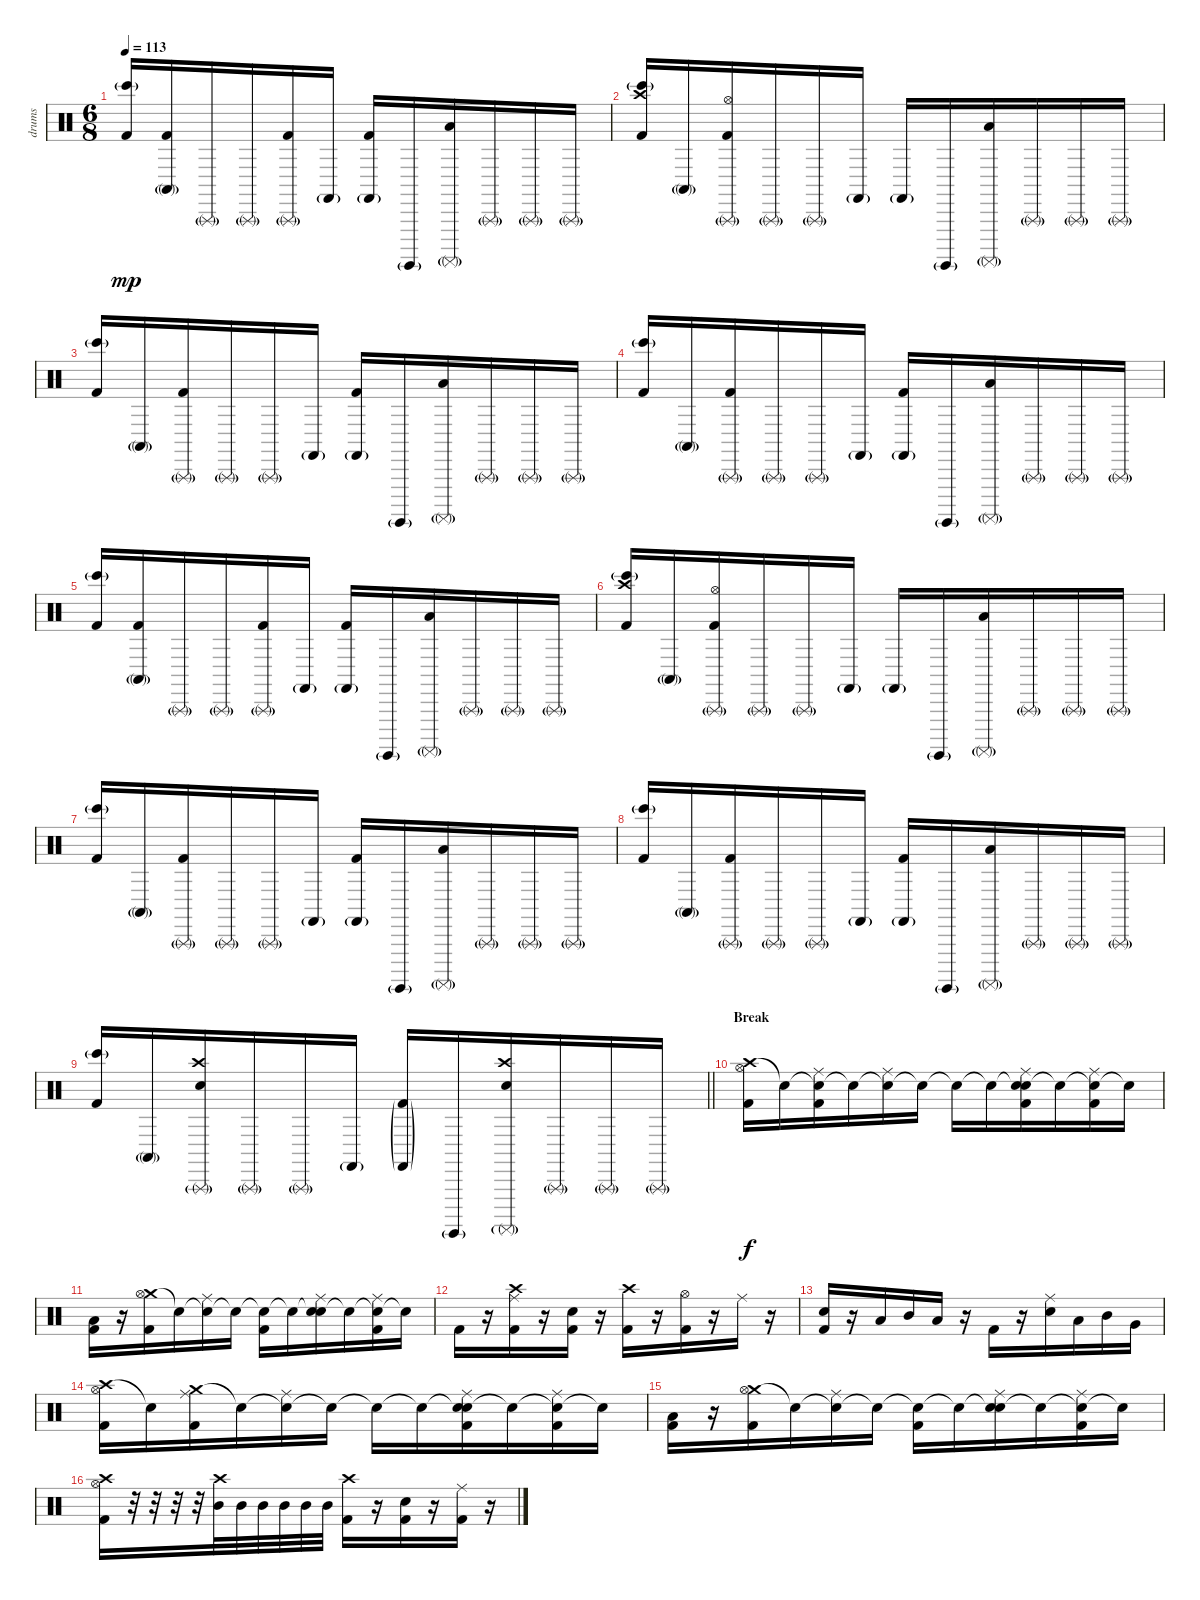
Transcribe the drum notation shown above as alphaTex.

\track ("drums" "drums") {instrument percussion}
\staff {score}
\articulation defaults
\ts (6 8)
\tempo 113
\clef neutral
\ks c
("Kick (hit) 2" "Bongo High (hit)"{g}).16{dy mp} ("Kick (hit) 2" "Conga high (mute)"{g}).16 "Triangle (rnute)"{g}.16 "Triangle (rnute)"{g}.16 ("Kick (hit) 2" "Triangle (rnute)"{g}).16 "Castanets (hit)"{g}.16 ("Kick (hit) 2" "Castanets (hit)"{g}).16 "Surdo (hit)"{g}.16 ("Low Tom (hit)" "Surdo (mute)"{g}).16 "Triangle (rnute)"{g}.16 "Triangle (rnute)"{g}.16 "Triangle (rnute)"{g}.16 |
("Crash high (hit)" "Kick (hit) 2" "Bongo High (hit)"{g}).16 "Conga high (mute)"{g}.16 ("Hi-Hat (open)" "Kick (hit) 2" "Triangle (rnute)"{g}).16 "Triangle (rnute)"{g}.16 "Triangle (rnute)"{g}.16 "Castanets (hit)"{g}.16 "Castanets (hit)"{g}.16 "Surdo (hit)"{g}.16 ("Low Tom (hit)" "Surdo (mute)"{g}).16 "Triangle (rnute)"{g}.16 "Triangle (rnute)"{g}.16 "Triangle (rnute)"{g}.16 |
("Kick (hit) 2" "Bongo High (hit)"{g}).16 "Conga high (mute)"{g}.16 ("Kick (hit) 2" "Triangle (rnute)"{g}).16 "Triangle (rnute)"{g}.16 "Triangle (rnute)"{g}.16 "Castanets (hit)"{g}.16 ("Kick (hit) 2" "Castanets (hit)"{g}).16 "Surdo (hit)"{g}.16 ("Low Tom (hit)" "Surdo (mute)"{g}).16 "Triangle (rnute)"{g}.16 "Triangle (rnute)"{g}.16 "Triangle (rnute)"{g}.16 |
("Kick (hit) 2" "Bongo High (hit)"{g}).16 "Conga high (mute)"{g}.16 ("Kick (hit) 2" "Triangle (rnute)"{g}).16 "Triangle (rnute)"{g}.16 "Triangle (rnute)"{g}.16 "Castanets (hit)"{g}.16 ("Kick (hit) 2" "Castanets (hit)"{g}).16 "Surdo (hit)"{g}.16 ("Low Tom (hit)" "Surdo (mute)"{g}).16 "Triangle (rnute)"{g}.16 "Triangle (rnute)"{g}.16 "Triangle (rnute)"{g}.16 |
("Kick (hit) 2" "Bongo High (hit)"{g}).16 ("Kick (hit) 2" "Conga high (mute)"{g}).16 "Triangle (rnute)"{g}.16 "Triangle (rnute)"{g}.16 ("Kick (hit) 2" "Triangle (rnute)"{g}).16 "Castanets (hit)"{g}.16 ("Kick (hit) 2" "Castanets (hit)"{g}).16 "Surdo (hit)"{g}.16 ("Low Tom (hit)" "Surdo (mute)"{g}).16 "Triangle (rnute)"{g}.16 "Triangle (rnute)"{g}.16 "Triangle (rnute)"{g}.16 |
("Crash high (hit)" "Kick (hit) 2" "Bongo High (hit)"{g}).16 "Conga high (mute)"{g}.16 ("Hi-Hat (open)" "Kick (hit) 2" "Triangle (rnute)"{g}).16 "Triangle (rnute)"{g}.16 "Triangle (rnute)"{g}.16 "Castanets (hit)"{g}.16 "Castanets (hit)"{g}.16 "Surdo (hit)"{g}.16 ("Low Tom (hit)" "Surdo (mute)"{g}).16 "Triangle (rnute)"{g}.16 "Triangle (rnute)"{g}.16 "Triangle (rnute)"{g}.16 |
("Kick (hit) 2" "Bongo High (hit)"{g}).16 "Conga high (mute)"{g}.16 ("Kick (hit) 2" "Triangle (rnute)"{g}).16 "Triangle (rnute)"{g}.16 "Triangle (rnute)"{g}.16 "Castanets (hit)"{g}.16 ("Kick (hit) 2" "Castanets (hit)"{g}).16 "Surdo (hit)"{g}.16 ("Low Tom (hit)" "Surdo (mute)"{g}).16 "Triangle (rnute)"{g}.16 "Triangle (rnute)"{g}.16 "Triangle (rnute)"{g}.16 |
("Kick (hit) 2" "Bongo High (hit)"{g}).16 "Conga high (mute)"{g}.16 ("Kick (hit) 2" "Triangle (rnute)"{g}).16 "Triangle (rnute)"{g}.16 "Triangle (rnute)"{g}.16 "Castanets (hit)"{g}.16 ("Kick (hit) 2" "Castanets (hit)"{g}).16 "Surdo (hit)"{g}.16 ("Low Tom (hit)" "Surdo (mute)"{g}).16 "Triangle (rnute)"{g}.16 "Triangle (rnute)"{g}.16 "Triangle (rnute)"{g}.16 |
\barLineRight lightlight
("Kick (hit) 2" "Bongo High (hit)"{g}).16 "Conga high (mute)"{g}.16 ("Crash high (hit)" "Electric Snare (hit)" "Triangle (rnute)"{g}).16 "Triangle (rnute)"{g}.16 "Triangle (rnute)"{g}.16 "Castanets (hit)"{g}.16 ("Kick (hit) 2"{g} "Castanets (hit)"{g}).16 "Surdo (hit)"{g}.16 ("Crash high (hit)" "Electric Snare (hit)" "Surdo (mute)"{g}).16 "Triangle (rnute)"{g}.16 "Triangle (rnute)"{g}.16 "Triangle (rnute)"{g}.16 |
\section ("" "Break")
("Crash high (hit)" "Hi-Hat (open)" "Kick (hit) 2").16{dy f} "Snare (hit)"{t}.16 ("Snare (hit)"{t} "Ride (middle)" "Kick (hit) 2").16 "Snare (hit)"{t}.16 ("Snare (hit)"{t} "Ride (middle)").16 "Snare (hit)"{t}.16 "Snare (hit)"{t}.16 "Snare (hit)"{t}.16 ("Snare (hit)"{t} "Ride (middle)" "Electric Snare (hit)" "Kick (hit) 2").16 "Snare (hit)"{t}.16 ("Snare (hit)"{t} "Kick (hit) 2" "Ride (middle)").16 "Snare (hit)"{t}.16 |
("Low Tom (hit)" "Kick (hit) 2").16 r.16 ("Crash medium (hit)" "Hi-Hat (open)" "Kick (hit) 2").16 "Snare (hit)"{t}.16 ("Snare (hit)"{t} "Ride (middle)").16 "Snare (hit)"{t}.16 ("Snare (hit)"{t} "Kick (hit) 2").16 "Snare (hit)"{t}.16 ("Snare (hit)"{t} "Ride (middle)" "Electric Snare (hit)").16 "Snare (hit)"{t}.16 ("Snare (hit)"{t} "Ride (middle)" "Kick (hit) 2").16 "Snare (hit)"{t}.16 |
"Kick (hit) 2".16 r.16 ("Crash high (hit)" "Ride (middle)" "Kick (hit) 2").16 r.16 ("Electric Snare (hit)" "Kick (hit) 2").16 r.16 ("Crash high (hit)" "Kick (hit) 2").16 r.16 ("Hi-Hat (open)" "Kick (hit) 2").16 r.16 "Ride (middle)".16 r.16 |
("Electric Snare (hit)" "Kick (hit) 2").16 r.16 "Low Tom (hit)".16 "Mid Tom (hit)".16 "Low Tom (hit)".16 r.16 "Kick (hit) 2".16 r.16 ("Ride (middle)" "Electric Snare (hit)").16 "Low Tom (hit)".16 "Mid Tom (hit)".16 "Very Low Tom (hit)".16 |
("Crash high (hit)" "Hi-Hat (open)" "Kick (hit) 2").16 "Snare (hit)"{t}.16 ("Crash medium (hit)" "Ride (middle)" "Kick (hit) 2").16 "Snare (hit)"{t}.16 ("Snare (hit)"{t} "Ride (middle)").16 "Snare (hit)"{t}.16 "Snare (hit)"{t}.16 "Snare (hit)"{t}.16 ("Snare (hit)"{t} "Ride (middle)" "Electric Snare (hit)" "Kick (hit) 2").16 "Snare (hit)"{t}.16 ("Snare (hit)"{t} "Kick (hit) 2" "Ride (middle)").16 "Snare (hit)"{t}.16 |
("Low Tom (hit)" "Kick (hit) 2").16 r.16 ("Crash medium (hit)" "Hi-Hat (open)" "Kick (hit) 2").16 "Snare (hit)"{t}.16 ("Snare (hit)"{t} "Ride (middle)").16 "Snare (hit)"{t}.16 ("Snare (hit)"{t} "Kick (hit) 2").16 "Snare (hit)"{t}.16 ("Snare (hit)"{t} "Ride (middle)" "Electric Snare (hit)").16 "Snare (hit)"{t}.16 ("Snare (hit)"{t} "Ride (middle)" "Kick (hit) 2").16 "Snare (hit)"{t}.16 |
("Crash high (hit)" "Hi-Hat (open)" "Kick (hit) 2").16 r.32 r.32 r.32 r.32 ("Crash high (hit)" "Mid Tom (hit)").32 "Mid Tom (hit)".32 "Mid Tom (hit)".32 "Mid Tom (hit)".32 "Mid Tom (hit)".32 "Mid Tom (hit)".32 ("Crash high (hit)" "Kick (hit) 2").16 r.16 ("Kick (hit) 2" "Electric Snare (hit)").16 r.16 ("Ride (middle)" "Kick (hit) 2").16 r.16
